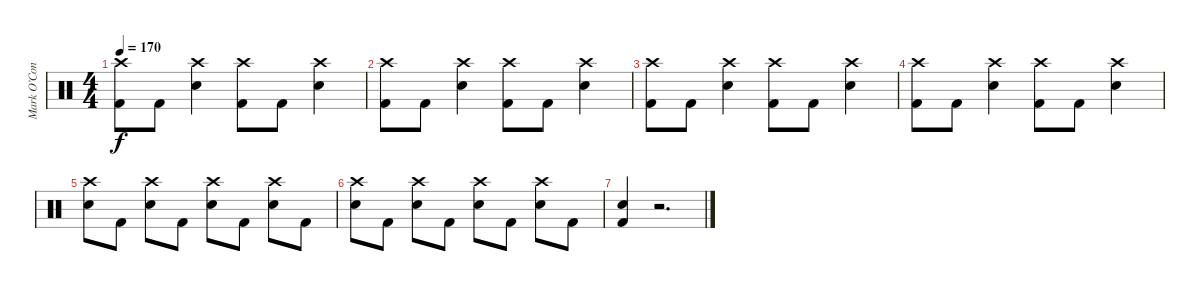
\track ("Mark O’Connell - Drums" "Mark O’Con") {instrument percussion}
\staff {score}
\articulation defaults
\ts (4 4)
\tempo 170
\clef neutral
\ks c
("Crash high (hit)" "Kick (hit) 2").8{dy f} "Kick (hit) 2".8 ("Crash high (hit)" "Snare (hit) 2").4 ("Crash high (hit)" "Kick (hit) 2").8 "Kick (hit) 2".8 ("Crash high (hit)" "Snare (hit) 2").4 |
("Crash high (hit)" "Kick (hit) 2").8 "Kick (hit) 2".8 ("Crash high (hit)" "Snare (hit) 2").4 ("Crash high (hit)" "Kick (hit) 2").8 "Kick (hit) 2".8 ("Crash high (hit)" "Snare (hit) 2").4 |
("Crash high (hit)" "Kick (hit) 2").8 "Kick (hit) 2".8 ("Crash high (hit)" "Snare (hit) 2").4 ("Crash high (hit)" "Kick (hit) 2").8 "Kick (hit) 2".8 ("Crash high (hit)" "Snare (hit) 2").4 |
("Crash high (hit)" "Kick (hit) 2").8 "Kick (hit) 2".8 ("Crash high (hit)" "Snare (hit) 2").4 ("Crash high (hit)" "Kick (hit) 2").8 "Kick (hit) 2".8 ("Crash high (hit)" "Snare (hit) 2").4 |
("Crash high (hit)" "Snare (hit) 2").8 "Kick (hit) 2".8 ("Crash high (hit)" "Snare (hit) 2").8 "Kick (hit) 2".8 ("Crash high (hit)" "Snare (hit) 2").8 "Kick (hit) 2".8 ("Crash high (hit)" "Snare (hit) 2").8 "Kick (hit) 2".8 |
("Crash high (hit)" "Snare (hit) 2").8 "Kick (hit) 2".8 ("Crash high (hit)" "Snare (hit) 2").8 "Kick (hit) 2".8 ("Crash high (hit)" "Snare (hit) 2").8 "Kick (hit) 2".8 ("Crash high (hit)" "Snare (hit) 2").8 "Kick (hit) 2".8 |
("Snare (hit) 2" "Kick (hit) 2").4 r.2{d}
